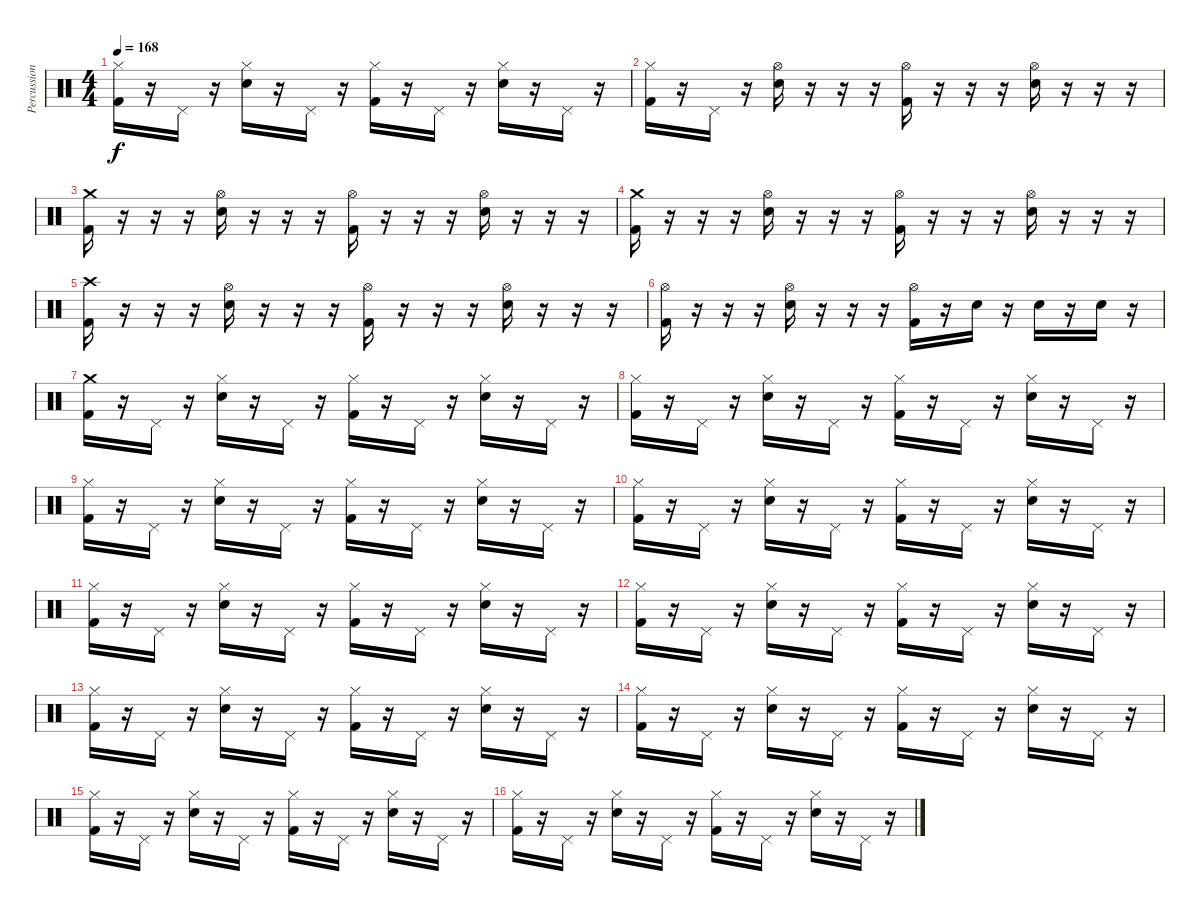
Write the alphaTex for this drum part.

\track ("Percussion" "Percussion") {instrument percussion}
\staff {score}
\articulation defaults
\ts (4 4)
\tempo 168
\clef neutral
\ks c
("Hi-Hat (closed)" "Kick (hit) 2").16{dy f} r.16 "Pedal Hi-Hat (hit)".16 r.16 ("Hi-Hat (closed)" "Snare (hit) 2").16 r.16 "Pedal Hi-Hat (hit)".16 r.16 ("Hi-Hat (closed)" "Kick (hit) 2").16 r.16 "Pedal Hi-Hat (hit)".16 r.16 ("Hi-Hat (closed)" "Snare (hit) 2").16 r.16 "Pedal Hi-Hat (hit)".16 r.16 |
("Hi-Hat (closed)" "Kick (hit) 2").16 r.16 "Pedal Hi-Hat (hit)".16 r.16 ("Hi-Hat (open)" "Snare (hit) 2").16 r.16 r.16 r.16 ("Hi-Hat (open)" "Kick (hit) 2").16 r.16 r.16 r.16 ("Hi-Hat (open)" "Snare (hit) 2").16 r.16 r.16 r.16 |
("Crash medium (hit)" "Kick (hit) 2").16 r.16 r.16 r.16 ("Hi-Hat (open)" "Snare (hit) 2").16 r.16 r.16 r.16 ("Hi-Hat (open)" "Kick (hit) 2").16 r.16 r.16 r.16 ("Hi-Hat (open)" "Snare (hit) 2").16 r.16 r.16 r.16 |
("Crash medium (hit)" "Kick (hit) 2").16 r.16 r.16 r.16 ("Hi-Hat (open)" "Snare (hit) 2").16 r.16 r.16 r.16 ("Hi-Hat (open)" "Kick (hit) 2").16 r.16 r.16 r.16 ("Hi-Hat (open)" "Snare (hit) 2").16 r.16 r.16 r.16 |
("Crash high (hit)" "Kick (hit) 2").16 r.16 r.16 r.16 ("Hi-Hat (open)" "Snare (hit) 2").16 r.16 r.16 r.16 ("Hi-Hat (open)" "Kick (hit) 2").16 r.16 r.16 r.16 ("Hi-Hat (open)" "Snare (hit) 2").16 r.16 r.16 r.16 |
("Hi-Hat (open)" "Kick (hit) 2").16 r.16 r.16 r.16 ("Hi-Hat (open)" "Snare (hit) 2").16 r.16 r.16 r.16 ("Hi-Hat (open)" "Kick (hit) 2").16 r.16 "Snare (hit) 2".16 r.16 "Snare (hit) 2".16 r.16 "Snare (hit) 2".16 r.16 |
("Crash medium (hit)" "Kick (hit) 2").16 r.16 "Pedal Hi-Hat (hit)".16 r.16 ("Hi-Hat (closed)" "Snare (hit) 2").16 r.16 "Pedal Hi-Hat (hit)".16 r.16 ("Hi-Hat (closed)" "Kick (hit) 2").16 r.16 "Pedal Hi-Hat (hit)".16 r.16 ("Hi-Hat (closed)" "Snare (hit) 2").16 r.16 "Pedal Hi-Hat (hit)".16 r.16 |
("Hi-Hat (closed)" "Kick (hit) 2").16 r.16 "Pedal Hi-Hat (hit)".16 r.16 ("Hi-Hat (closed)" "Snare (hit) 2").16 r.16 "Pedal Hi-Hat (hit)".16 r.16 ("Hi-Hat (closed)" "Kick (hit) 2").16 r.16 "Pedal Hi-Hat (hit)".16 r.16 ("Hi-Hat (closed)" "Snare (hit) 2").16 r.16 "Pedal Hi-Hat (hit)".16 r.16 |
("Hi-Hat (closed)" "Kick (hit) 2").16 r.16 "Pedal Hi-Hat (hit)".16 r.16 ("Hi-Hat (closed)" "Snare (hit) 2").16 r.16 "Pedal Hi-Hat (hit)".16 r.16 ("Hi-Hat (closed)" "Kick (hit) 2").16 r.16 "Pedal Hi-Hat (hit)".16 r.16 ("Hi-Hat (closed)" "Snare (hit) 2").16 r.16 "Pedal Hi-Hat (hit)".16 r.16 |
("Hi-Hat (closed)" "Kick (hit) 2").16 r.16 "Pedal Hi-Hat (hit)".16 r.16 ("Hi-Hat (closed)" "Snare (hit) 2").16 r.16 "Pedal Hi-Hat (hit)".16 r.16 ("Hi-Hat (closed)" "Kick (hit) 2").16 r.16 "Pedal Hi-Hat (hit)".16 r.16 ("Hi-Hat (closed)" "Snare (hit) 2").16 r.16 "Pedal Hi-Hat (hit)".16 r.16 |
("Hi-Hat (closed)" "Kick (hit) 2").16 r.16 "Pedal Hi-Hat (hit)".16 r.16 ("Hi-Hat (closed)" "Snare (hit) 2").16 r.16 "Pedal Hi-Hat (hit)".16 r.16 ("Hi-Hat (closed)" "Kick (hit) 2").16 r.16 "Pedal Hi-Hat (hit)".16 r.16 ("Hi-Hat (closed)" "Snare (hit) 2").16 r.16 "Pedal Hi-Hat (hit)".16 r.16 |
("Hi-Hat (closed)" "Kick (hit) 2").16 r.16 "Pedal Hi-Hat (hit)".16 r.16 ("Hi-Hat (closed)" "Snare (hit) 2").16 r.16 "Pedal Hi-Hat (hit)".16 r.16 ("Hi-Hat (closed)" "Kick (hit) 2").16 r.16 "Pedal Hi-Hat (hit)".16 r.16 ("Hi-Hat (closed)" "Snare (hit) 2").16 r.16 "Pedal Hi-Hat (hit)".16 r.16 |
("Hi-Hat (closed)" "Kick (hit) 2").16 r.16 "Pedal Hi-Hat (hit)".16 r.16 ("Hi-Hat (closed)" "Snare (hit) 2").16 r.16 "Pedal Hi-Hat (hit)".16 r.16 ("Hi-Hat (closed)" "Kick (hit) 2").16 r.16 "Pedal Hi-Hat (hit)".16 r.16 ("Hi-Hat (closed)" "Snare (hit) 2").16 r.16 "Pedal Hi-Hat (hit)".16 r.16 |
("Hi-Hat (closed)" "Kick (hit) 2").16 r.16 "Pedal Hi-Hat (hit)".16 r.16 ("Hi-Hat (closed)" "Snare (hit) 2").16 r.16 "Pedal Hi-Hat (hit)".16 r.16 ("Hi-Hat (closed)" "Kick (hit) 2").16 r.16 "Pedal Hi-Hat (hit)".16 r.16 ("Hi-Hat (closed)" "Snare (hit) 2").16 r.16 "Pedal Hi-Hat (hit)".16 r.16 |
("Hi-Hat (closed)" "Kick (hit) 2").16 r.16 "Pedal Hi-Hat (hit)".16 r.16 ("Hi-Hat (closed)" "Snare (hit) 2").16 r.16 "Pedal Hi-Hat (hit)".16 r.16 ("Hi-Hat (closed)" "Kick (hit) 2").16 r.16 "Pedal Hi-Hat (hit)".16 r.16 ("Hi-Hat (closed)" "Snare (hit) 2").16 r.16 "Pedal Hi-Hat (hit)".16 r.16 |
("Hi-Hat (closed)" "Kick (hit) 2").16 r.16 "Pedal Hi-Hat (hit)".16 r.16 ("Hi-Hat (closed)" "Snare (hit) 2").16 r.16 "Pedal Hi-Hat (hit)".16 r.16 ("Hi-Hat (closed)" "Kick (hit) 2").16 r.16 "Pedal Hi-Hat (hit)".16 r.16 ("Hi-Hat (closed)" "Snare (hit) 2").16 r.16 "Pedal Hi-Hat (hit)".16 r.16
